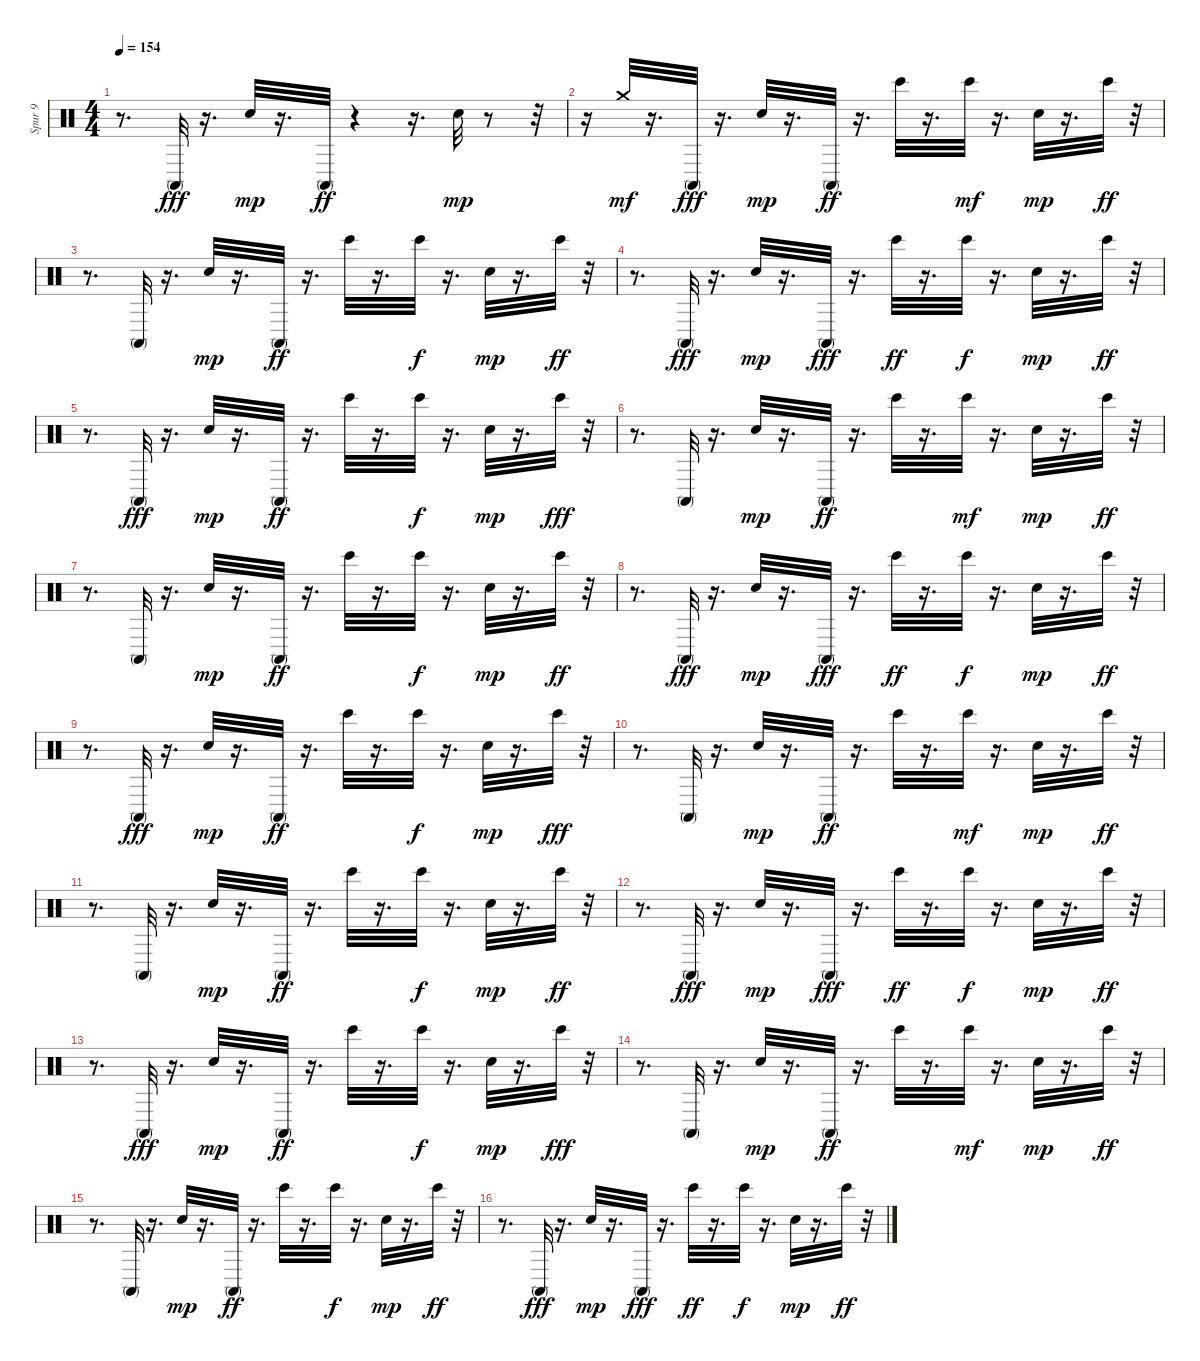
\track ("Spur 9" "Spur 9") {instrument percussion}
\staff {score}
\articulation defaults
\ts (4 4)
\tempo 154
\clef neutral
\ks c
r.8{d dy fff} "Conga high (mute)".32 r.16{d} "Hand Clap (hit)".32{dy mp} r.16{d} "Conga high (mute)".32{dy ff} r.4 r.16{d} "Hand Clap (hit)".32{dy mp} r.8 r.32 |
r.16 "Crash medium (hit)".32{dy mf} r.16{d} "Conga high (mute)".32{dy fff} r.16{d} "Hand Clap (hit)".32{dy mp} r.16{d} "Conga high (mute)".32{dy ff} r.16{d} "Bongo High (hit)".32 r.16{d} "Bongo High (hit)".32{dy mf} r.16{d} "Hand Clap (hit)".32{dy mp} r.16{d} "Bongo High (hit)".32{dy ff} r.32 |
r.8{d} "Conga high (mute)".32 r.16{d} "Hand Clap (hit)".32{dy mp} r.16{d} "Conga high (mute)".32{dy ff} r.16{d} "Bongo High (hit)".32 r.16{d} "Bongo High (hit)".32{dy f} r.16{d} "Hand Clap (hit)".32{dy mp} r.16{d} "Bongo High (hit)".32{dy ff} r.32 |
r.8{d} "Conga high (mute)".32{dy fff} r.16{d} "Hand Clap (hit)".32{dy mp} r.16{d} "Conga high (mute)".32{dy fff} r.16{d} "Bongo High (hit)".32{dy ff} r.16{d} "Bongo High (hit)".32{dy f} r.16{d} "Hand Clap (hit)".32{dy mp} r.16{d} "Bongo High (hit)".32{dy ff} r.32 |
r.8{d} "Conga high (mute)".32{dy fff} r.16{d} "Hand Clap (hit)".32{dy mp} r.16{d} "Conga high (mute)".32{dy ff} r.16{d} "Bongo High (hit)".32 r.16{d} "Bongo High (hit)".32{dy f} r.16{d} "Hand Clap (hit)".32{dy mp} r.16{d} "Bongo High (hit)".32{dy fff} r.32 |
r.8{d} "Conga high (mute)".32 r.16{d} "Hand Clap (hit)".32{dy mp} r.16{d} "Conga high (mute)".32{dy ff} r.16{d} "Bongo High (hit)".32 r.16{d} "Bongo High (hit)".32{dy mf} r.16{d} "Hand Clap (hit)".32{dy mp} r.16{d} "Bongo High (hit)".32{dy ff} r.32 |
r.8{d} "Conga high (mute)".32 r.16{d} "Hand Clap (hit)".32{dy mp} r.16{d} "Conga high (mute)".32{dy ff} r.16{d} "Bongo High (hit)".32 r.16{d} "Bongo High (hit)".32{dy f} r.16{d} "Hand Clap (hit)".32{dy mp} r.16{d} "Bongo High (hit)".32{dy ff} r.32 |
r.8{d} "Conga high (mute)".32{dy fff} r.16{d} "Hand Clap (hit)".32{dy mp} r.16{d} "Conga high (mute)".32{dy fff} r.16{d} "Bongo High (hit)".32{dy ff} r.16{d} "Bongo High (hit)".32{dy f} r.16{d} "Hand Clap (hit)".32{dy mp} r.16{d} "Bongo High (hit)".32{dy ff} r.32 |
r.8{d} "Conga high (mute)".32{dy fff} r.16{d} "Hand Clap (hit)".32{dy mp} r.16{d} "Conga high (mute)".32{dy ff} r.16{d} "Bongo High (hit)".32 r.16{d} "Bongo High (hit)".32{dy f} r.16{d} "Hand Clap (hit)".32{dy mp} r.16{d} "Bongo High (hit)".32{dy fff} r.32 |
r.8{d} "Conga high (mute)".32 r.16{d} "Hand Clap (hit)".32{dy mp} r.16{d} "Conga high (mute)".32{dy ff} r.16{d} "Bongo High (hit)".32 r.16{d} "Bongo High (hit)".32{dy mf} r.16{d} "Hand Clap (hit)".32{dy mp} r.16{d} "Bongo High (hit)".32{dy ff} r.32 |
r.8{d} "Conga high (mute)".32 r.16{d} "Hand Clap (hit)".32{dy mp} r.16{d} "Conga high (mute)".32{dy ff} r.16{d} "Bongo High (hit)".32 r.16{d} "Bongo High (hit)".32{dy f} r.16{d} "Hand Clap (hit)".32{dy mp} r.16{d} "Bongo High (hit)".32{dy ff} r.32 |
r.8{d} "Conga high (mute)".32{dy fff} r.16{d} "Hand Clap (hit)".32{dy mp} r.16{d} "Conga high (mute)".32{dy fff} r.16{d} "Bongo High (hit)".32{dy ff} r.16{d} "Bongo High (hit)".32{dy f} r.16{d} "Hand Clap (hit)".32{dy mp} r.16{d} "Bongo High (hit)".32{dy ff} r.32 |
r.8{d} "Conga high (mute)".32{dy fff} r.16{d} "Hand Clap (hit)".32{dy mp} r.16{d} "Conga high (mute)".32{dy ff} r.16{d} "Bongo High (hit)".32 r.16{d} "Bongo High (hit)".32{dy f} r.16{d} "Hand Clap (hit)".32{dy mp} r.16{d} "Bongo High (hit)".32{dy fff} r.32 |
r.8{d} "Conga high (mute)".32 r.16{d} "Hand Clap (hit)".32{dy mp} r.16{d} "Conga high (mute)".32{dy ff} r.16{d} "Bongo High (hit)".32 r.16{d} "Bongo High (hit)".32{dy mf} r.16{d} "Hand Clap (hit)".32{dy mp} r.16{d} "Bongo High (hit)".32{dy ff} r.32 |
r.8{d} "Conga high (mute)".32 r.16{d} "Hand Clap (hit)".32{dy mp} r.16{d} "Conga high (mute)".32{dy ff} r.16{d} "Bongo High (hit)".32 r.16{d} "Bongo High (hit)".32{dy f} r.16{d} "Hand Clap (hit)".32{dy mp} r.16{d} "Bongo High (hit)".32{dy ff} r.32 |
r.8{d} "Conga high (mute)".32{dy fff} r.16{d} "Hand Clap (hit)".32{dy mp} r.16{d} "Conga high (mute)".32{dy fff} r.16{d} "Bongo High (hit)".32{dy ff} r.16{d} "Bongo High (hit)".32{dy f} r.16{d} "Hand Clap (hit)".32{dy mp} r.16{d} "Bongo High (hit)".32{dy ff} r.32
